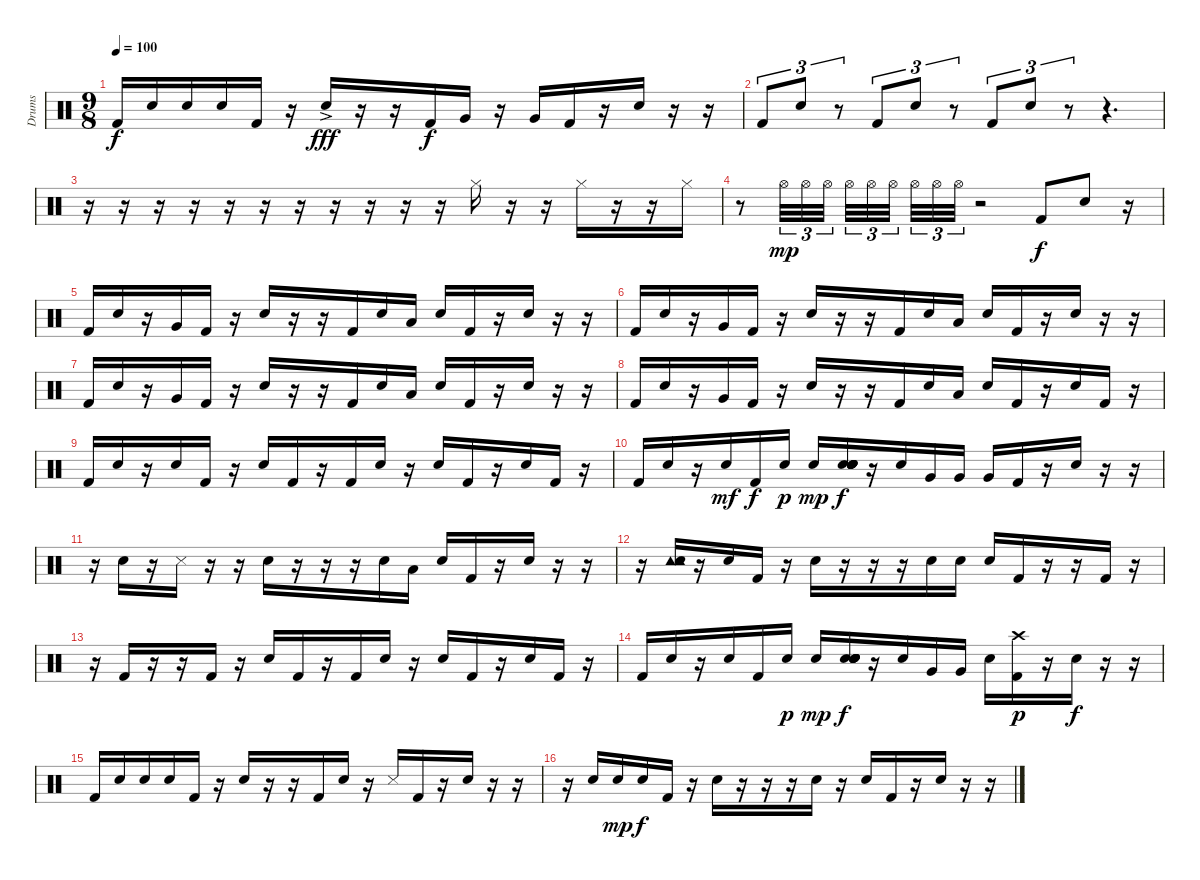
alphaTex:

\track ("Drums" "Drums") {instrument percussion}
\staff {score}
\articulation defaults
\ts (9 8)
\tempo 100
\clef neutral
\ks c "Kick (hit) 2".16{dy f} "Electric Snare (hit)".16 "Electric Snare (hit)".16 "Electric Snare (hit)".16 "Kick (hit) 2".16
r.16 "Electric Snare (hit)"{ac}.16{dy fff} r.16 r.16 "Kick (hit) 2".16{dy f} "Very Low Tom (hit)".16 r.16 "Very Low Tom (hit)".16 "Kick (hit) 2".16 r.16 "Electric Snare (hit)".16 r.16 r.16 |
"Kick (hit) 2".8{tu (3 2)} "Electric Snare (hit)".8{tu (3 2)} r.8{tu (3 2)} "Kick (hit) 2".8{tu (3 2)} "Electric Snare (hit)".8{tu (3 2)} r.8{tu (3 2)} "Kick (hit) 2".8{tu (3 2)} "Electric Snare (hit)".8{tu (3 2)} r.8{tu (3 2)} r.4{d} |
r.16 r.16 r.16 r.16 r.16 r.16 r.16 r.16 r.16 r.16 r.16 "Hi-Hat (closed)".16 r.16 r.16 "Hi-Hat (closed)".16 r.16 r.16 "Hi-Hat (closed)".16 |
r.8 "Hi-Hat (open)".32{tu (3 2) dy mp} "Hi-Hat (open)".32{tu (3 2)} "Hi-Hat (open)".32{tu (3 2)} "Hi-Hat (open)".32{tu (3 2)} "Hi-Hat (open)".32{tu (3 2)} "Hi-Hat (open)".32{tu (3 2)} "Hi-Hat (open)".32{tu (3 2)} "Hi-Hat (open)".32{tu (3 2)} "Hi-Hat (open)".32{tu (3 2)} r.2 "Kick (hit) 2".8{dy f} "Electric Snare (hit)".8 r.16 |
"Kick (hit) 2".16 "Electric Snare (hit)".16 r.16 "Very Low Tom (hit)".16 "Kick (hit) 2".16 r.16 "Electric Snare (hit)".16 r.16 r.16 "Kick (hit) 2".16 "Electric Snare (hit)".16 "Low Floor Tom (hit)".16 "Electric Snare (hit)".16 "Kick (hit) 2".16 r.16 "Electric Snare (hit)".16 r.16 r.16 |
"Kick (hit) 2".16 "Electric Snare (hit)".16 r.16 "Very Low Tom (hit)".16 "Kick (hit) 2".16 r.16 "Electric Snare (hit)".16 r.16 r.16 "Kick (hit) 2".16 "Electric Snare (hit)".16 "Low Floor Tom (hit)".16 "Electric Snare (hit)".16 "Kick (hit) 2".16 r.16 "Electric Snare (hit)".16 r.16 r.16 |
"Kick (hit) 2".16 "Electric Snare (hit)".16 r.16 "Very Low Tom (hit)".16 "Kick (hit) 2".16 r.16 "Electric Snare (hit)".16 r.16 r.16 "Kick (hit) 2".16 "Electric Snare (hit)".16 "Low Floor Tom (hit)".16 "Electric Snare (hit)".16 "Kick (hit) 2".16 r.16 "Electric Snare (hit)".16 r.16 r.16 |
"Kick (hit) 2".16 "Electric Snare (hit)".16 r.16 "Very Low Tom (hit)".16 "Kick (hit) 2".16 r.16 "Electric Snare (hit)".16 r.16 r.16 "Kick (hit) 2".16 "Electric Snare (hit)".16 "Low Floor Tom (hit)".16 "Electric Snare (hit)".16 "Kick (hit) 2".16 r.16 "Electric Snare (hit)".16 "Kick (hit) 2".16 r.16 |
"Kick (hit) 2".16 "Electric Snare (hit)".16 r.16 "Electric Snare (hit)".16 "Kick (hit) 2".16 r.16 "Electric Snare (hit)".16 "Kick (hit) 2".16 r.16 "Kick (hit) 2".16 "Electric Snare (hit)".16 r.16 "Electric Snare (hit)".16 "Kick (hit) 2".16 r.16 "Electric Snare (hit)".16 "Kick (hit) 2".16 r.16 |
"Kick (hit) 2".16 "Electric Snare (hit)".16 r.16 "Electric Snare (hit)".16{dy mf} "Kick (hit) 2".16{dy f} "Electric Snare (hit)".16{dy p} "Electric Snare (hit)".16{dy mp} ("Electric Snare (hit)" "Electric Snare (hit)" "Electric Snare (hit)" "Electric Snare (hit)" "Electric Snare (hit)" "Electric Snare (hit)").16{dy f} r.16 "Electric Snare (hit)".16 "Very Low Tom (hit)".16 "Very Low Tom (hit)".16 "Very Low Tom (hit)".16 "Kick (hit) 2".16 r.16 "Electric Snare (hit)".16 r.16 r.16 |
r.16 "Electric Snare (hit)".16 r.16 "Metronome (hit)".16 r.16 r.16 "Electric Snare (hit)".16 r.16 r.16 r.16 "Electric Snare (hit)".16 "Low Floor Tom (hit)".16 "Electric Snare (hit)".16 "Kick (hit) 2".16 r.16 "Electric Snare (hit)".16 r.16 r.16 |
r.16 ("Tambourine (hit)" "Electric Snare (hit)" "Tambourine (hit)").16{bd 480} r.16 "Electric Snare (hit)".16 "Kick (hit) 2".16 r.16 "Electric Snare (hit)".16 r.16 r.16 r.16 "Electric Snare (hit)".16 "Electric Snare (hit)".16 "Electric Snare (hit)".16 "Kick (hit) 2".16 r.16 r.16 "Kick (hit) 2".16 r.16 |
r.16 "Kick (hit) 2".16 r.16 r.16 "Kick (hit) 2".16 r.16 "Electric Snare (hit)".16 "Kick (hit) 2".16 r.16 "Kick (hit) 2".16 "Electric Snare (hit)".16 r.16 "Electric Snare (hit)".16 "Kick (hit) 2".16 r.16 "Electric Snare (hit)".16 "Kick (hit) 2".16 r.16 |
"Kick (hit) 2".16 "Electric Snare (hit)".16 r.16 "Electric Snare (hit)".16 "Kick (hit) 2".16 "Electric Snare (hit)".16{dy p} "Electric Snare (hit)".16{dy mp} ("Electric Snare (hit)" "Electric Snare (hit)" "Electric Snare (hit)" "Electric Snare (hit)" "Electric Snare (hit)" "Electric Snare (hit)").16{dy f} r.16 "Electric Snare (hit)".16 "Very Low Tom (hit)".16 "Very Low Tom (hit)".16 "Electric Snare (hit)".16 ("Crash high (hit)" "Kick (hit) 2").16{dy p} r.16 "Electric Snare (hit)".16{dy f} r.16 r.16 |
"Kick (hit) 2".16 "Electric Snare (hit)".16 "Electric Snare (hit)".16 "Electric Snare (hit)".16 "Kick (hit) 2".16 r.16 "Electric Snare (hit)".16 r.16 r.16 "Kick (hit) 2".16 "Electric Snare (hit)".16 r.16 "Metronome (hit)".16 "Kick (hit) 2".16 r.16 "Electric Snare (hit)".16 r.16 r.16 |
r.16 "Electric Snare (hit)".16 "Electric Snare (hit)".16{dy mp} "Electric Snare (hit)".16{dy f} "Kick (hit) 2".16 r.16 "Electric Snare (hit)".16 r.16 r.16 r.16 "Electric Snare (hit)".16 r.16 "Electric Snare (hit)".16 "Kick (hit) 2".16 r.16 "Electric Snare (hit)".16 r.16 r.16
